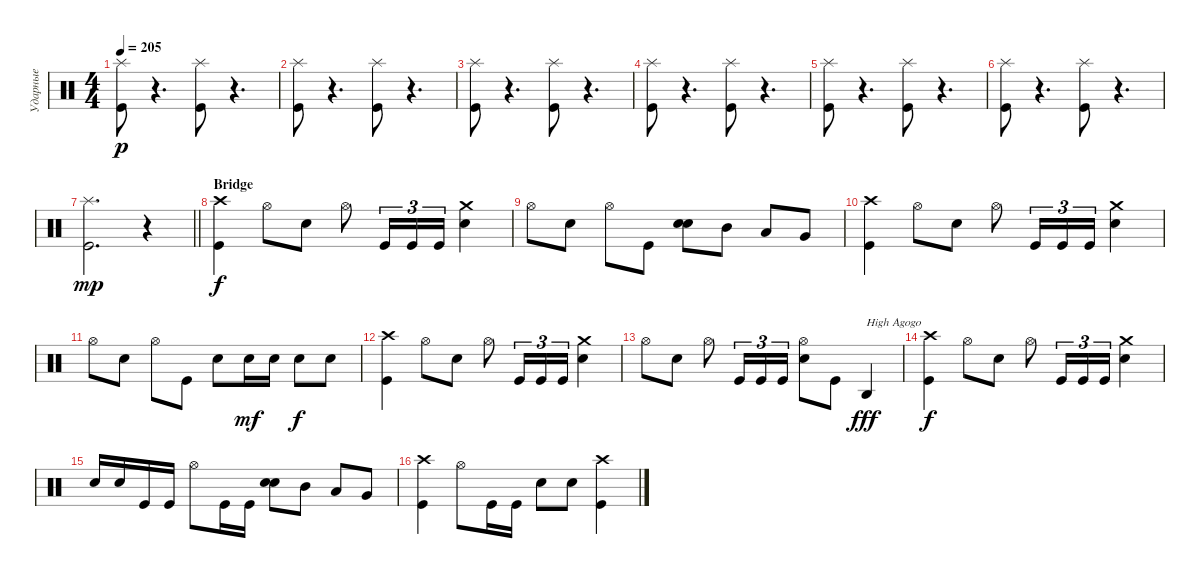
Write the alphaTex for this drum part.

\track ("Ударные" "Ударные") {instrument percussion}
\staff {score}
\articulation defaults
\ts (4 4)
\tempo 205
\clef neutral
\ks aminor
("Kick (hit)" "Splash (hit)").8{dy p} r.4{d} ("Kick (hit)" "Splash (hit)").8 r.4{d} |
("Kick (hit)" "Splash (hit)").8 r.4{d} ("Kick (hit)" "Splash (hit)").8 r.4{d} |
("Kick (hit)" "Splash (hit)").8 r.4{d} ("Kick (hit)" "Splash (hit)").8 r.4{d} |
("Kick (hit)" "Splash (hit)").8 r.4{d} ("Kick (hit)" "Splash (hit)").8 r.4{d} |
("Kick (hit)" "Splash (hit)").8 r.4{d} ("Kick (hit)" "Splash (hit)").8 r.4{d} |
("Kick (hit)" "Splash (hit)").8 r.4{d} ("Kick (hit)" "Splash (hit)").8 r.4{d} |
\barLineRight lightlight
("Kick (hit)" "Splash (hit)").2{d dy mp} r.4 |
\section ("" "Bridge")
("Kick (hit)" "Crash high (hit)").4{dy f} "Hi-Hat (open)".8 "Snare (hit) 2".8 "Hi-Hat (open)".8 "Kick (hit)".16{tu (3 2)} "Kick (hit)".16{tu (3 2)} "Kick (hit)".16{tu (3 2)} ("Snare (hit) 2" "Crash medium (hit)").4 |
"Hi-Hat (open)".8 "Snare (hit) 2".8 "Hi-Hat (open)".8 "Kick (hit)".8 ("Snare (hit) 2" "Snare (hit) 2").8{bd 240} "Mid Tom (hit)".8 "Low Tom (hit)".8 "Very Low Tom (hit)".8 |
("Kick (hit)" "Crash high (hit)").4 "Hi-Hat (open)".8 "Snare (hit) 2".8 "Hi-Hat (open)".8 "Kick (hit)".16{tu (3 2)} "Kick (hit)".16{tu (3 2)} "Kick (hit)".16{tu (3 2)} ("Snare (hit) 2" "Crash medium (hit)").4 |
"Hi-Hat (open)".8 "Snare (hit) 2".8 "Hi-Hat (open)".8 "Kick (hit)".8 "Snare (hit) 2".8 "Snare (hit) 2".16{dy mf} "Snare (hit) 2".16 "Snare (hit) 2".8{dy f} "Snare (hit) 2".8 |
("Kick (hit)" "Crash high (hit)").4 "Hi-Hat (open)".8 "Snare (hit) 2".8 "Hi-Hat (open)".8 "Kick (hit)".16{tu (3 2)} "Kick (hit)".16{tu (3 2)} "Kick (hit)".16{tu (3 2)} ("Snare (hit) 2" "Crash medium (hit)").4 |
"Hi-Hat (open)".8 "Snare (hit) 2".8 "Hi-Hat (open)".8 "Kick (hit)".16{tu (3 2)} "Kick (hit)".16{tu (3 2)} "Kick (hit)".16{tu (3 2)} ("Snare (hit) 2" "Hi-Hat (open)").8 "Kick (hit)".8 "Agogo high (hit)".4{txt "High Agogo" dy fff} |
("Kick (hit)" "Crash high (hit)").4{dy f} "Hi-Hat (open)".8 "Snare (hit) 2".8 "Hi-Hat (open)".8 "Kick (hit)".16{tu (3 2)} "Kick (hit)".16{tu (3 2)} "Kick (hit)".16{tu (3 2)} ("Snare (hit) 2" "Crash medium (hit)").4 |
"Snare (hit) 2".16 "Snare (hit) 2".16 "Kick (hit)".16 "Kick (hit)".16 "Hi-Hat (open)".8 "Kick (hit)".16 "Kick (hit)".16 ("Snare (hit) 2" "Snare (hit) 2").8{bd 240} "Mid Tom (hit)".8 "Low Tom (hit)".8 "Very Low Tom (hit)".8 |
("Kick (hit)" "Crash high (hit)").4 "Hi-Hat (open)".8 "Kick (hit)".16 "Kick (hit)".16 "Snare (hit) 2".8 "Snare (hit) 2".8 ("Kick (hit)" "Crash high (hit)").4
